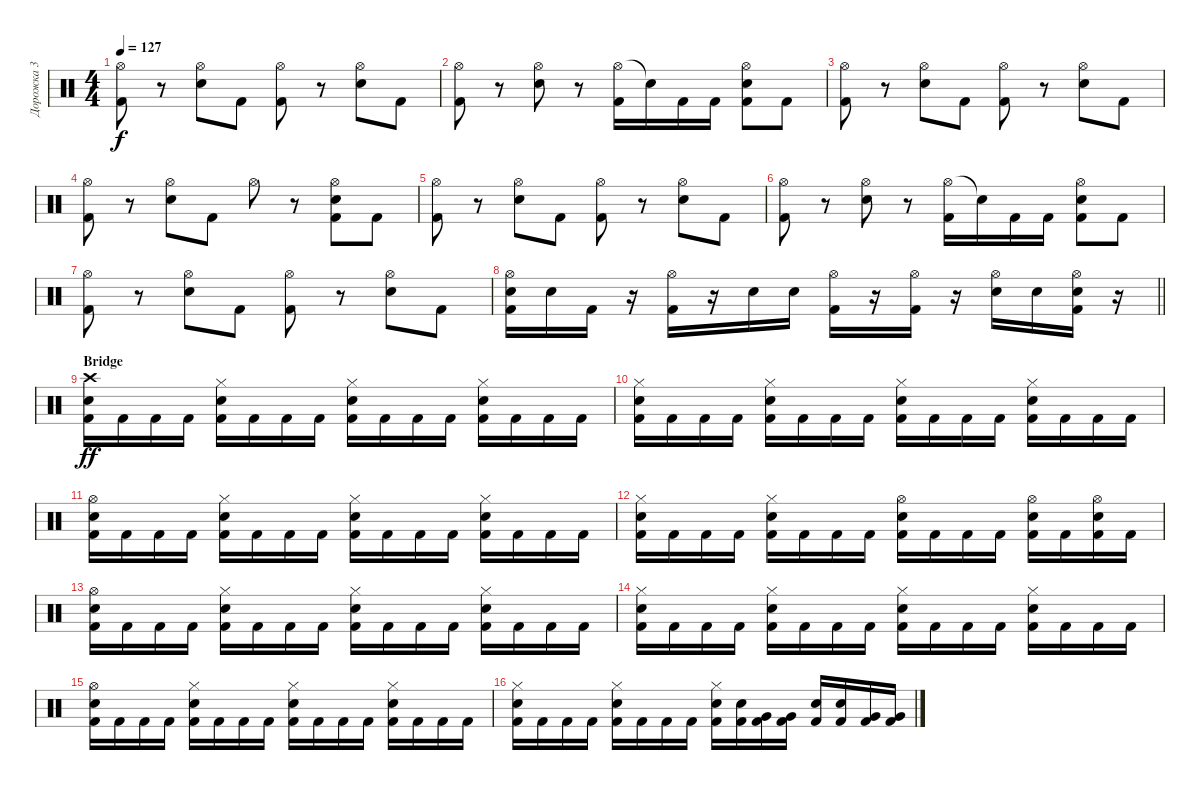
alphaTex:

\track ("Дорожка 3" "Дорожка 3") {instrument percussion}
\staff {score}
\articulation defaults
\ts (4 4)
\tempo 127
\clef neutral
\ks c
("Hi-Hat (open)" "Kick (hit) 2").8{dy f} r.8 ("Hi-Hat (open)" "Electric Snare (hit)").8 "Kick (hit) 2".8 ("Hi-Hat (open)" "Kick (hit) 2").8 r.8 ("Hi-Hat (open)" "Electric Snare (hit)").8 "Kick (hit) 2".8 |
("Hi-Hat (open)" "Kick (hit) 2").8 r.8 ("Hi-Hat (open)" "Electric Snare (hit)").8 r.8 ("Hi-Hat (open)" "Kick (hit) 2").16 "Snare (hit)"{t}.16 "Kick (hit) 2".16 "Kick (hit) 2".16 ("Hi-Hat (open)" "Electric Snare (hit)" "Kick (hit) 2").8 "Kick (hit) 2".8 |
("Hi-Hat (open)" "Kick (hit) 2").8 r.8 ("Hi-Hat (open)" "Electric Snare (hit)").8 "Kick (hit) 2".8 ("Hi-Hat (open)" "Kick (hit) 2").8 r.8 ("Hi-Hat (open)" "Electric Snare (hit)").8 "Kick (hit) 2".8 |
("Hi-Hat (open)" "Kick (hit) 2").8 r.8 ("Hi-Hat (open)" "Electric Snare (hit)").8 "Kick (hit) 2".8 "Hi-Hat (open)".8 r.8 ("Hi-Hat (open)" "Electric Snare (hit)" "Kick (hit) 2").8 "Kick (hit) 2".8 |
("Hi-Hat (open)" "Kick (hit) 2").8 r.8 ("Hi-Hat (open)" "Electric Snare (hit)").8 "Kick (hit) 2".8 ("Hi-Hat (open)" "Kick (hit) 2").8 r.8 ("Hi-Hat (open)" "Electric Snare (hit)").8 "Kick (hit) 2".8 |
("Hi-Hat (open)" "Kick (hit) 2").8 r.8 ("Hi-Hat (open)" "Electric Snare (hit)").8 r.8 ("Hi-Hat (open)" "Kick (hit) 2").16 "Snare (hit)"{t}.16 "Kick (hit) 2".16 "Kick (hit) 2".16 ("Hi-Hat (open)" "Electric Snare (hit)" "Kick (hit) 2").8 "Kick (hit) 2".8 |
("Hi-Hat (open)" "Kick (hit) 2").8 r.8 ("Hi-Hat (open)" "Electric Snare (hit)").8 "Kick (hit) 2".8 ("Hi-Hat (open)" "Kick (hit) 2").8 r.8 ("Hi-Hat (open)" "Electric Snare (hit)").8 "Kick (hit) 2".8 |
\barLineRight lightlight
("Hi-Hat (open)" "Electric Snare (hit)" "Kick (hit) 2").16 "Electric Snare (hit)".16 "Kick (hit) 2".16 r.16 ("Hi-Hat (open)" "Kick (hit) 2").16 r.16 "Electric Snare (hit)".16 "Electric Snare (hit)".16 ("Hi-Hat (open)" "Kick (hit) 2").16 r.16 ("Hi-Hat (open)" "Kick (hit) 2").16 r.16 ("Hi-Hat (open)" "Electric Snare (hit)").16 "Electric Snare (hit)".16 ("Hi-Hat (open)" "Electric Snare (hit)" "Kick (hit) 2").16 r.16 |
\section ("" "Bridge")
("Crash high (hit)" "Electric Snare (hit)" "Kick (hit) 2").16{dy ff} "Kick (hit) 2".16 "Kick (hit) 2".16 "Kick (hit) 2".16 ("Hi-Hat (closed)" "Electric Snare (hit)" "Kick (hit) 2").16 "Kick (hit) 2".16 "Kick (hit) 2".16 "Kick (hit) 2".16 ("Hi-Hat (closed)" "Electric Snare (hit)" "Kick (hit) 2").16 "Kick (hit) 2".16 "Kick (hit) 2".16 "Kick (hit) 2".16 ("Hi-Hat (closed)" "Electric Snare (hit)" "Kick (hit) 2").16 "Kick (hit) 2".16 "Kick (hit) 2".16 "Kick (hit) 2".16 |
("Hi-Hat (closed)" "Electric Snare (hit)" "Kick (hit) 2").16 "Kick (hit) 2".16 "Kick (hit) 2".16 "Kick (hit) 2".16 ("Hi-Hat (closed)" "Electric Snare (hit)" "Kick (hit) 2").16 "Kick (hit) 2".16 "Kick (hit) 2".16 "Kick (hit) 2".16 ("Hi-Hat (closed)" "Electric Snare (hit)" "Kick (hit) 2").16 "Kick (hit) 2".16 "Kick (hit) 2".16 "Kick (hit) 2".16 ("Hi-Hat (closed)" "Electric Snare (hit)" "Kick (hit) 2").16 "Kick (hit) 2".16 "Kick (hit) 2".16 "Kick (hit) 2".16 |
("Hi-Hat (open)" "Electric Snare (hit)" "Kick (hit) 2").16 "Kick (hit) 2".16 "Kick (hit) 2".16 "Kick (hit) 2".16 ("Hi-Hat (closed)" "Electric Snare (hit)" "Kick (hit) 2").16 "Kick (hit) 2".16 "Kick (hit) 2".16 "Kick (hit) 2".16 ("Hi-Hat (closed)" "Electric Snare (hit)" "Kick (hit) 2").16 "Kick (hit) 2".16 "Kick (hit) 2".16 "Kick (hit) 2".16 ("Hi-Hat (closed)" "Electric Snare (hit)" "Kick (hit) 2").16 "Kick (hit) 2".16 "Kick (hit) 2".16 "Kick (hit) 2".16 |
("Hi-Hat (closed)" "Electric Snare (hit)" "Kick (hit) 2").16 "Kick (hit) 2".16 "Kick (hit) 2".16 "Kick (hit) 2".16 ("Hi-Hat (closed)" "Electric Snare (hit)" "Kick (hit) 2").16 "Kick (hit) 2".16 "Kick (hit) 2".16 "Kick (hit) 2".16 ("Hi-Hat (open)" "Electric Snare (hit)" "Kick (hit) 2").16 "Kick (hit) 2".16 "Kick (hit) 2".16 "Kick (hit) 2".16 ("Hi-Hat (open)" "Electric Snare (hit)" "Kick (hit) 2").16 "Kick (hit) 2".16 ("Hi-Hat (open)" "Electric Snare (hit)" "Kick (hit) 2").16 "Kick (hit) 2".16 |
("Hi-Hat (open)" "Electric Snare (hit)" "Kick (hit) 2").16 "Kick (hit) 2".16 "Kick (hit) 2".16 "Kick (hit) 2".16 ("Hi-Hat (closed)" "Electric Snare (hit)" "Kick (hit) 2").16 "Kick (hit) 2".16 "Kick (hit) 2".16 "Kick (hit) 2".16 ("Hi-Hat (closed)" "Electric Snare (hit)" "Kick (hit) 2").16 "Kick (hit) 2".16 "Kick (hit) 2".16 "Kick (hit) 2".16 ("Hi-Hat (closed)" "Electric Snare (hit)" "Kick (hit) 2").16 "Kick (hit) 2".16 "Kick (hit) 2".16 "Kick (hit) 2".16 |
("Hi-Hat (closed)" "Electric Snare (hit)" "Kick (hit) 2").16 "Kick (hit) 2".16 "Kick (hit) 2".16 "Kick (hit) 2".16 ("Hi-Hat (closed)" "Electric Snare (hit)" "Kick (hit) 2").16 "Kick (hit) 2".16 "Kick (hit) 2".16 "Kick (hit) 2".16 ("Hi-Hat (closed)" "Electric Snare (hit)" "Kick (hit) 2").16 "Kick (hit) 2".16 "Kick (hit) 2".16 "Kick (hit) 2".16 ("Hi-Hat (closed)" "Electric Snare (hit)" "Kick (hit) 2").16 "Kick (hit) 2".16 "Kick (hit) 2".16 "Kick (hit) 2".16 |
("Hi-Hat (open)" "Electric Snare (hit)" "Kick (hit) 2").16 "Kick (hit) 2".16 "Kick (hit) 2".16 "Kick (hit) 2".16 ("Hi-Hat (closed)" "Electric Snare (hit)" "Kick (hit) 2").16 "Kick (hit) 2".16 "Kick (hit) 2".16 "Kick (hit) 2".16 ("Hi-Hat (closed)" "Electric Snare (hit)" "Kick (hit) 2").16 "Kick (hit) 2".16 "Kick (hit) 2".16 "Kick (hit) 2".16 ("Hi-Hat (closed)" "Electric Snare (hit)" "Kick (hit) 2").16 "Kick (hit) 2".16 "Kick (hit) 2".16 "Kick (hit) 2".16 |
("Hi-Hat (closed)" "Electric Snare (hit)" "Kick (hit) 2").16 "Kick (hit) 2".16 "Kick (hit) 2".16 "Kick (hit) 2".16 ("Hi-Hat (closed)" "Electric Snare (hit)" "Kick (hit) 2").16 "Kick (hit) 2".16 "Kick (hit) 2".16 "Kick (hit) 2".16 ("Hi-Hat (closed)" "Electric Snare (hit)" "Kick (hit) 2").16 ("Electric Snare (hit)" "Kick (hit) 2").16 ("Very Low Tom (hit)" "Kick (hit) 2").16 ("Very Low Tom (hit)" "Kick (hit) 2").16 ("Electric Snare (hit)" "Kick (hit) 2").16 ("Electric Snare (hit)" "Kick (hit) 2").16 ("Very Low Tom (hit)" "Kick (hit) 2").16 ("Very Low Tom (hit)" "Kick (hit) 2").16
